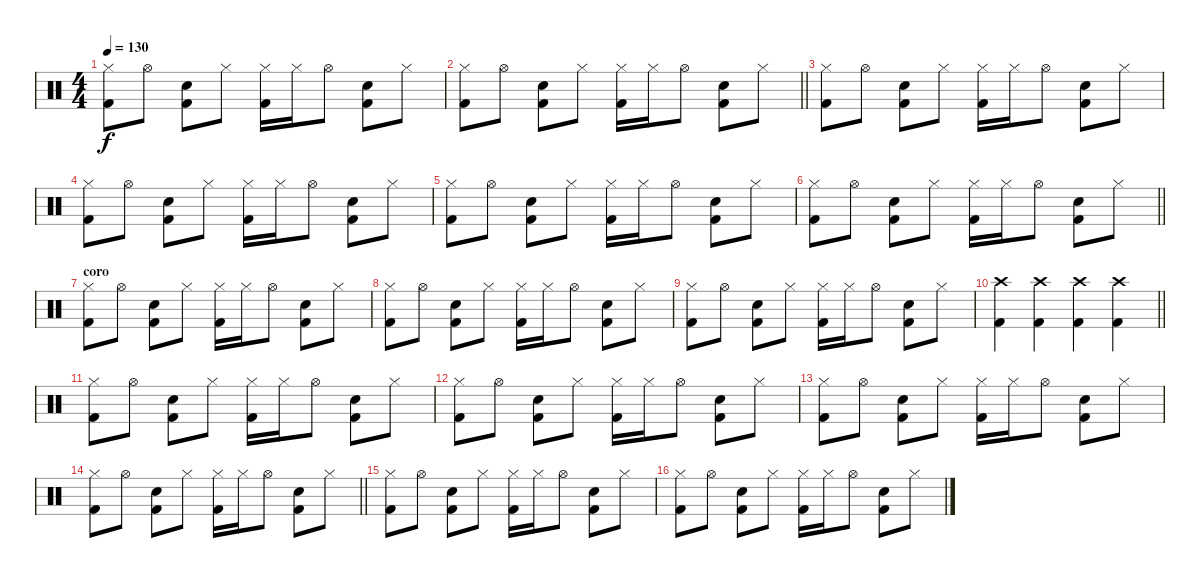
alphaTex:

\track "" {instrument percussion}
\staff {score}
\articulation defaults
\ts (4 4)
\tempo 130
\clef neutral
\ks c
("Hi-Hat (closed)" "Kick (hit) 2").8{dy f} "Hi-Hat (open)".8 ("Electric Snare (hit)" "Kick (hit) 2").8 "Hi-Hat (closed)".8 ("Hi-Hat (closed)" "Kick (hit) 2").16 "Hi-Hat (closed)".16 "Hi-Hat (open)".8 ("Electric Snare (hit)" "Kick (hit) 2").8 "Hi-Hat (closed)".8 |
\barLineRight lightlight
("Hi-Hat (closed)" "Kick (hit) 2").8 "Hi-Hat (open)".8 ("Electric Snare (hit)" "Kick (hit) 2").8 "Hi-Hat (closed)".8 ("Hi-Hat (closed)" "Kick (hit) 2").16 "Hi-Hat (closed)".16 "Hi-Hat (open)".8 ("Electric Snare (hit)" "Kick (hit) 2").8 "Hi-Hat (closed)".8 |
\section ("" "")
("Hi-Hat (closed)" "Kick (hit) 2").8 "Hi-Hat (open)".8 ("Electric Snare (hit)" "Kick (hit) 2").8 "Hi-Hat (closed)".8 ("Hi-Hat (closed)" "Kick (hit) 2").16 "Hi-Hat (closed)".16 "Hi-Hat (open)".8 ("Electric Snare (hit)" "Kick (hit) 2").8 "Hi-Hat (closed)".8 |
("Hi-Hat (closed)" "Kick (hit) 2").8 "Hi-Hat (open)".8 ("Electric Snare (hit)" "Kick (hit) 2").8 "Hi-Hat (closed)".8 ("Hi-Hat (closed)" "Kick (hit) 2").16 "Hi-Hat (closed)".16 "Hi-Hat (open)".8 ("Electric Snare (hit)" "Kick (hit) 2").8 "Hi-Hat (closed)".8 |
("Hi-Hat (closed)" "Kick (hit) 2").8 "Hi-Hat (open)".8 ("Electric Snare (hit)" "Kick (hit) 2").8 "Hi-Hat (closed)".8 ("Hi-Hat (closed)" "Kick (hit) 2").16 "Hi-Hat (closed)".16 "Hi-Hat (open)".8 ("Electric Snare (hit)" "Kick (hit) 2").8 "Hi-Hat (closed)".8 |
\barLineRight lightlight
("Hi-Hat (closed)" "Kick (hit) 2").8 "Hi-Hat (open)".8 ("Electric Snare (hit)" "Kick (hit) 2").8 "Hi-Hat (closed)".8 ("Hi-Hat (closed)" "Kick (hit) 2").16 "Hi-Hat (closed)".16 "Hi-Hat (open)".8 ("Electric Snare (hit)" "Kick (hit) 2").8 "Hi-Hat (closed)".8 |
\section ("" "coro")
("Hi-Hat (closed)" "Kick (hit) 2").8 "Hi-Hat (open)".8 ("Electric Snare (hit)" "Kick (hit) 2").8 "Hi-Hat (closed)".8 ("Hi-Hat (closed)" "Kick (hit) 2").16 "Hi-Hat (closed)".16 "Hi-Hat (open)".8 ("Electric Snare (hit)" "Kick (hit) 2").8 "Hi-Hat (closed)".8 |
("Hi-Hat (closed)" "Kick (hit) 2").8 "Hi-Hat (open)".8 ("Electric Snare (hit)" "Kick (hit) 2").8 "Hi-Hat (closed)".8 ("Hi-Hat (closed)" "Kick (hit) 2").16 "Hi-Hat (closed)".16 "Hi-Hat (open)".8 ("Electric Snare (hit)" "Kick (hit) 2").8 "Hi-Hat (closed)".8 |
("Hi-Hat (closed)" "Kick (hit) 2").8 "Hi-Hat (open)".8 ("Electric Snare (hit)" "Kick (hit) 2").8 "Hi-Hat (closed)".8 ("Hi-Hat (closed)" "Kick (hit) 2").16 "Hi-Hat (closed)".16 "Hi-Hat (open)".8 ("Electric Snare (hit)" "Kick (hit) 2").8 "Hi-Hat (closed)".8 |
\barLineRight lightlight
("Crash high (hit)" "Kick (hit) 2").4 ("Crash high (hit)" "Kick (hit) 2").4 ("Crash high (hit)" "Kick (hit) 2").4 ("Crash high (hit)" "Kick (hit) 2").4 |
\section ("" "")
("Hi-Hat (closed)" "Kick (hit) 2").8 "Hi-Hat (open)".8 ("Electric Snare (hit)" "Kick (hit) 2").8 "Hi-Hat (closed)".8 ("Hi-Hat (closed)" "Kick (hit) 2").16 "Hi-Hat (closed)".16 "Hi-Hat (open)".8 ("Electric Snare (hit)" "Kick (hit) 2").8 "Hi-Hat (closed)".8 |
("Hi-Hat (closed)" "Kick (hit) 2").8 "Hi-Hat (open)".8 ("Electric Snare (hit)" "Kick (hit) 2").8 "Hi-Hat (closed)".8 ("Hi-Hat (closed)" "Kick (hit) 2").16 "Hi-Hat (closed)".16 "Hi-Hat (open)".8 ("Electric Snare (hit)" "Kick (hit) 2").8 "Hi-Hat (closed)".8 |
("Hi-Hat (closed)" "Kick (hit) 2").8 "Hi-Hat (open)".8 ("Electric Snare (hit)" "Kick (hit) 2").8 "Hi-Hat (closed)".8 ("Hi-Hat (closed)" "Kick (hit) 2").16 "Hi-Hat (closed)".16 "Hi-Hat (open)".8 ("Electric Snare (hit)" "Kick (hit) 2").8 "Hi-Hat (closed)".8 |
\barLineRight lightlight
("Hi-Hat (closed)" "Kick (hit) 2").8 "Hi-Hat (open)".8 ("Electric Snare (hit)" "Kick (hit) 2").8 "Hi-Hat (closed)".8 ("Hi-Hat (closed)" "Kick (hit) 2").16 "Hi-Hat (closed)".16 "Hi-Hat (open)".8 ("Electric Snare (hit)" "Kick (hit) 2").8 "Hi-Hat (closed)".8 |
("Hi-Hat (closed)" "Kick (hit) 2").8 "Hi-Hat (open)".8 ("Electric Snare (hit)" "Kick (hit) 2").8 "Hi-Hat (closed)".8 ("Hi-Hat (closed)" "Kick (hit) 2").16 "Hi-Hat (closed)".16 "Hi-Hat (open)".8 ("Electric Snare (hit)" "Kick (hit) 2").8 "Hi-Hat (closed)".8 |
("Hi-Hat (closed)" "Kick (hit) 2").8 "Hi-Hat (open)".8 ("Electric Snare (hit)" "Kick (hit) 2").8 "Hi-Hat (closed)".8 ("Hi-Hat (closed)" "Kick (hit) 2").16 "Hi-Hat (closed)".16 "Hi-Hat (open)".8 ("Electric Snare (hit)" "Kick (hit) 2").8 "Hi-Hat (closed)".8
